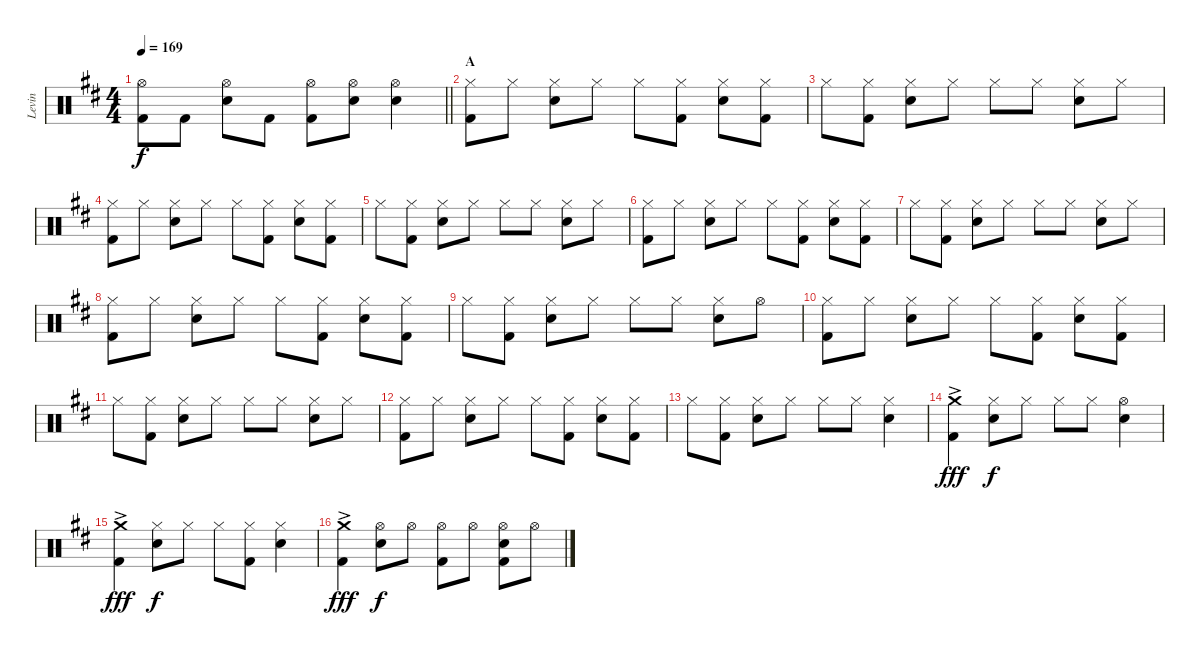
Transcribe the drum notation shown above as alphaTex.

\track ("Levin" "Levin") {instrument percussion}
\staff {score}
\articulation defaults
\ts (4 4)
\tempo 169
\clef neutral
\barLineRight lightlight
\ks d
("Hi-Hat (open)" "Kick (hit) 2").8{dy f} "Kick (hit) 2".8 ("Hi-Hat (open)" "Electric Snare (hit)").8 "Kick (hit) 2".8 ("Hi-Hat (open)" "Kick (hit) 2").8 ("Hi-Hat (open)" "Electric Snare (hit)").8 ("Hi-Hat (open)" "Electric Snare (hit)").4 |
\section ("" "A")
("Hi-Hat (closed)" "Kick (hit) 2").8 "Hi-Hat (closed)".8 ("Hi-Hat (closed)" "Electric Snare (hit)").8 "Hi-Hat (closed)".8 "Hi-Hat (closed)".8 ("Hi-Hat (closed)" "Kick (hit) 2").8 ("Hi-Hat (closed)" "Electric Snare (hit)").8 ("Hi-Hat (closed)" "Kick (hit) 2").8 |
"Hi-Hat (closed)".8 ("Hi-Hat (closed)" "Kick (hit) 2").8 ("Hi-Hat (closed)" "Electric Snare (hit)").8 "Hi-Hat (closed)".8 "Hi-Hat (closed)".8 "Hi-Hat (closed)".8 ("Hi-Hat (closed)" "Electric Snare (hit)").8 "Hi-Hat (closed)".8 |
("Hi-Hat (closed)" "Kick (hit) 2").8 "Hi-Hat (closed)".8 ("Hi-Hat (closed)" "Electric Snare (hit)").8 "Hi-Hat (closed)".8 "Hi-Hat (closed)".8 ("Hi-Hat (closed)" "Kick (hit) 2").8 ("Hi-Hat (closed)" "Electric Snare (hit)").8 ("Hi-Hat (closed)" "Kick (hit) 2").8 |
"Hi-Hat (closed)".8 ("Hi-Hat (closed)" "Kick (hit) 2").8 ("Hi-Hat (closed)" "Electric Snare (hit)").8 "Hi-Hat (closed)".8 "Hi-Hat (closed)".8 "Hi-Hat (closed)".8 ("Hi-Hat (closed)" "Electric Snare (hit)").8 "Hi-Hat (closed)".8 |
("Hi-Hat (closed)" "Kick (hit) 2").8 "Hi-Hat (closed)".8 ("Hi-Hat (closed)" "Electric Snare (hit)").8 "Hi-Hat (closed)".8 "Hi-Hat (closed)".8 ("Hi-Hat (closed)" "Kick (hit) 2").8 ("Hi-Hat (closed)" "Electric Snare (hit)").8 ("Hi-Hat (closed)" "Kick (hit) 2").8 |
"Hi-Hat (closed)".8 ("Hi-Hat (closed)" "Kick (hit) 2").8 ("Hi-Hat (closed)" "Electric Snare (hit)").8 "Hi-Hat (closed)".8 "Hi-Hat (closed)".8 "Hi-Hat (closed)".8 ("Hi-Hat (closed)" "Electric Snare (hit)").8 "Hi-Hat (closed)".8 |
("Hi-Hat (closed)" "Kick (hit) 2").8 "Hi-Hat (closed)".8 ("Hi-Hat (closed)" "Electric Snare (hit)").8 "Hi-Hat (closed)".8 "Hi-Hat (closed)".8 ("Hi-Hat (closed)" "Kick (hit) 2").8 ("Hi-Hat (closed)" "Electric Snare (hit)").8 ("Hi-Hat (closed)" "Kick (hit) 2").8 |
"Hi-Hat (closed)".8 ("Hi-Hat (closed)" "Kick (hit) 2").8 ("Hi-Hat (closed)" "Electric Snare (hit)").8 "Hi-Hat (closed)".8 "Hi-Hat (closed)".8 "Hi-Hat (closed)".8 ("Hi-Hat (closed)" "Electric Snare (hit)").8 "Hi-Hat (open)".8 |
("Hi-Hat (closed)" "Kick (hit) 2").8 "Hi-Hat (closed)".8 ("Hi-Hat (closed)" "Electric Snare (hit)").8 "Hi-Hat (closed)".8 "Hi-Hat (closed)".8 ("Hi-Hat (closed)" "Kick (hit) 2").8 ("Hi-Hat (closed)" "Electric Snare (hit)").8 ("Hi-Hat (closed)" "Kick (hit) 2").8 |
"Hi-Hat (closed)".8 ("Hi-Hat (closed)" "Kick (hit) 2").8 ("Hi-Hat (closed)" "Electric Snare (hit)").8 "Hi-Hat (closed)".8 "Hi-Hat (closed)".8 "Hi-Hat (closed)".8 ("Hi-Hat (closed)" "Electric Snare (hit)").8 "Hi-Hat (closed)".8 |
("Hi-Hat (closed)" "Kick (hit) 2").8 "Hi-Hat (closed)".8 ("Hi-Hat (closed)" "Electric Snare (hit)").8 "Hi-Hat (closed)".8 "Hi-Hat (closed)".8 ("Hi-Hat (closed)" "Kick (hit) 2").8 ("Hi-Hat (closed)" "Electric Snare (hit)").8 ("Hi-Hat (closed)" "Kick (hit) 2").8 |
"Hi-Hat (closed)".8 ("Hi-Hat (closed)" "Kick (hit) 2").8 ("Hi-Hat (closed)" "Electric Snare (hit)").8 "Hi-Hat (closed)".8 "Hi-Hat (closed)".8 "Hi-Hat (closed)".8 ("Hi-Hat (closed)" "Electric Snare (hit)").4 |
("Crash medium (hit)"{ac} "Kick (hit) 2").4{dy fff} ("Hi-Hat (closed)" "Electric Snare (hit)").8{dy f} "Hi-Hat (closed)".8 "Hi-Hat (closed)".8 "Hi-Hat (closed)".8 ("Hi-Hat (open)" "Electric Snare (hit)").4 |
("Crash medium (hit)"{ac} "Kick (hit) 2").4{dy fff} ("Hi-Hat (closed)" "Electric Snare (hit)").8{dy f} "Hi-Hat (closed)".8 "Hi-Hat (closed)".8 ("Hi-Hat (closed)" "Kick (hit) 2").8 ("Hi-Hat (closed)" "Electric Snare (hit)").4 |
("Crash medium (hit)"{ac} "Kick (hit) 2").4{dy fff} ("Hi-Hat (open)" "Electric Snare (hit)").8{dy f} "Hi-Hat (open)".8 ("Hi-Hat (open)" "Kick (hit) 2").8 "Hi-Hat (open)".8 ("Hi-Hat (open)" "Electric Snare (hit)" "Kick (hit) 2").8 "Hi-Hat (open)".8
